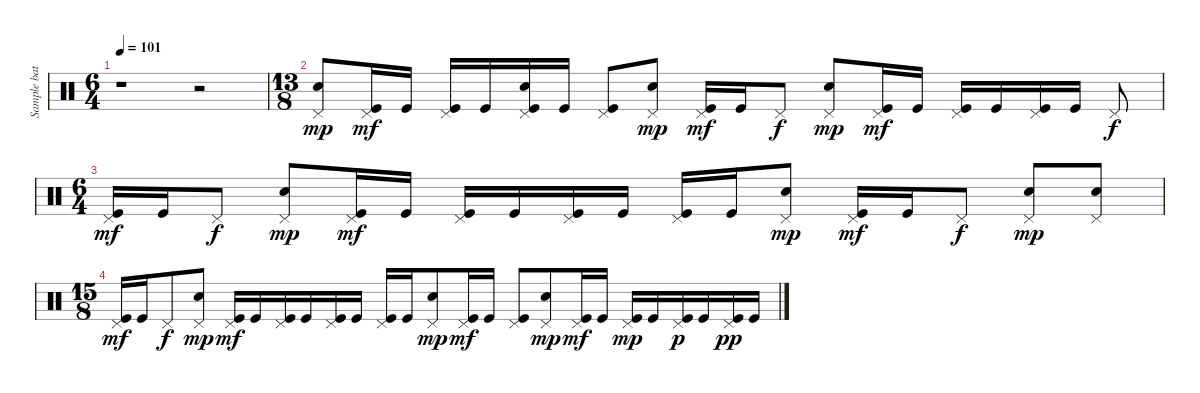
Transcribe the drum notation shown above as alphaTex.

\track ("Sample batterie" "Sample bat") {instrument percussion}
\staff {score}
\articulation defaults
\ts (6 4)
\tempo 101
\clef neutral
\ks c
r.1{dy mp} r.2 |
\ts (13 8)
("Electric Snare (hit)" "Pedal Hi-Hat (hit)").8{volume 12} ("Pedal Hi-Hat (hit)" "Kick (hit)").16{dy mf} "Kick (hit)".16 ("Pedal Hi-Hat (hit)" "Kick (hit)").16 "Kick (hit)".16 ("Electric Snare (hit)" "Pedal Hi-Hat (hit)" "Kick (hit)").16 "Kick (hit)".16 ("Pedal Hi-Hat (hit)" "Kick (hit)").8 ("Electric Snare (hit)" "Pedal Hi-Hat (hit)").8{dy mp} ("Pedal Hi-Hat (hit)" "Kick (hit)").16{dy mf} "Kick (hit)".16 "Pedal Hi-Hat (hit)".8{dy f} ("Electric Snare (hit)" "Pedal Hi-Hat (hit)").8{dy mp} ("Pedal Hi-Hat (hit)" "Kick (hit)").16{dy mf} "Kick (hit)".16 ("Pedal Hi-Hat (hit)" "Kick (hit)").16 "Kick (hit)".16 ("Pedal Hi-Hat (hit)" "Kick (hit)").16 "Kick (hit)".16 "Pedal Hi-Hat (hit)".8{dy f} |
\ts (6 4)
("Pedal Hi-Hat (hit)" "Kick (hit)").16{dy mf volume 12} "Kick (hit)".16 "Pedal Hi-Hat (hit)".8{dy f} ("Electric Snare (hit)" "Pedal Hi-Hat (hit)").8{dy mp} ("Pedal Hi-Hat (hit)" "Kick (hit)").16{dy mf} "Kick (hit)".16 ("Pedal Hi-Hat (hit)" "Kick (hit)").16 "Kick (hit)".16 ("Pedal Hi-Hat (hit)" "Kick (hit)").16 "Kick (hit)".16 ("Pedal Hi-Hat (hit)" "Kick (hit)").16 "Kick (hit)".16 ("Electric Snare (hit)" "Pedal Hi-Hat (hit)").8{dy mp} ("Pedal Hi-Hat (hit)" "Kick (hit)").16{dy mf} "Kick (hit)".16 "Pedal Hi-Hat (hit)".8{dy f} ("Electric Snare (hit)" "Pedal Hi-Hat (hit)").8{dy mp} ("Electric Snare (hit)" "Pedal Hi-Hat (hit)").8 |
\ts (15 8)
("Pedal Hi-Hat (hit)" "Kick (hit)").16{dy mf volume 0} "Kick (hit)".16 "Pedal Hi-Hat (hit)".8{dy f} ("Electric Snare (hit)" "Pedal Hi-Hat (hit)").8{dy mp} ("Pedal Hi-Hat (hit)" "Kick (hit)").16{dy mf} "Kick (hit)".16 ("Pedal Hi-Hat (hit)" "Kick (hit)").16 "Kick (hit)".16 ("Pedal Hi-Hat (hit)" "Kick (hit)").16 "Kick (hit)".16 ("Pedal Hi-Hat (hit)" "Kick (hit)").16 "Kick (hit)".16 ("Electric Snare (hit)" "Pedal Hi-Hat (hit)").8{dy mp} ("Pedal Hi-Hat (hit)" "Kick (hit)").16{dy mf} "Kick (hit)".16 ("Pedal Hi-Hat (hit)" "Kick (hit)").8 ("Electric Snare (hit)" "Pedal Hi-Hat (hit)").8{dy mp} ("Pedal Hi-Hat (hit)" "Kick (hit)").16{dy mf} "Kick (hit)".16 ("Pedal Hi-Hat (hit)" "Kick (hit)").16{dy mp} "Kick (hit)".16 ("Pedal Hi-Hat (hit)" "Kick (hit)").16{dy p} "Kick (hit)".16 ("Pedal Hi-Hat (hit)" "Kick (hit)").16{dy pp} "Kick (hit)".16
